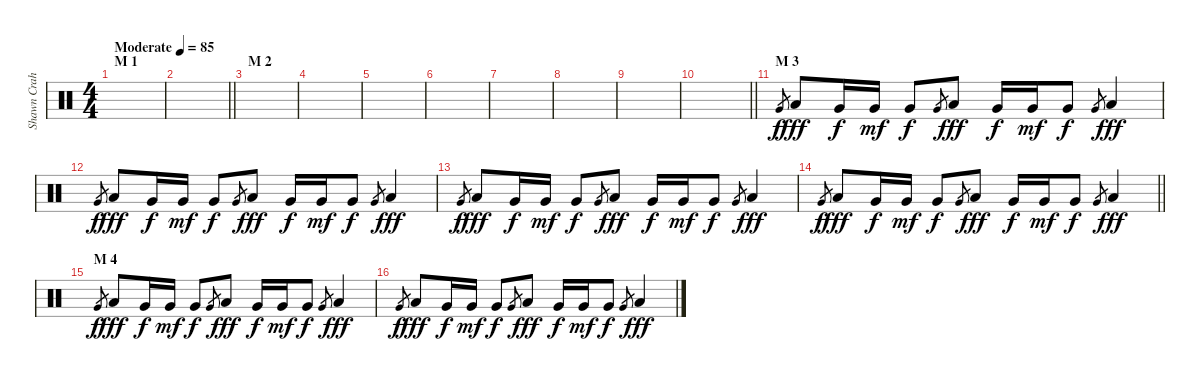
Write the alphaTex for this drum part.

\track ("Shawn Crahan" "Shawn Crah") {instrument percussion}
\staff {score}
\articulation defaults
\ts (4 4)
\section ("" "M 1")
\tempo (85 "Moderate")
\clef neutral
\ks c
|
\barLineRight lightlight
|
\section ("" "M 2")
|
|
|
|
|
|
|
\barLineRight lightlight
|
\section ("" "M 3")
"Very Low Tom (hit)".8{gr} "Low Tom (hit)".8{dy fff} "Very Low Tom (hit)".16{dy f} "Very Low Tom (hit)".16{dy mf} "Very Low Tom (hit)".8{dy f} "Very Low Tom (hit)".8{gr} "Low Tom (hit)".8{dy fff} "Very Low Tom (hit)".16{dy f} "Very Low Tom (hit)".16{dy mf} "Very Low Tom (hit)".8{dy f} "Very Low Tom (hit)".8{gr} "Low Tom (hit)".4{dy fff} |
"Very Low Tom (hit)".8{gr dy f} "Low Tom (hit)".8{dy fff} "Very Low Tom (hit)".16{dy f} "Very Low Tom (hit)".16{dy mf} "Very Low Tom (hit)".8{dy f} "Very Low Tom (hit)".8{gr} "Low Tom (hit)".8{dy fff} "Very Low Tom (hit)".16{dy f} "Very Low Tom (hit)".16{dy mf} "Very Low Tom (hit)".8{dy f} "Very Low Tom (hit)".8{gr} "Low Tom (hit)".4{dy fff} |
"Very Low Tom (hit)".8{gr dy f} "Low Tom (hit)".8{dy fff} "Very Low Tom (hit)".16{dy f} "Very Low Tom (hit)".16{dy mf} "Very Low Tom (hit)".8{dy f} "Very Low Tom (hit)".8{gr} "Low Tom (hit)".8{dy fff} "Very Low Tom (hit)".16{dy f} "Very Low Tom (hit)".16{dy mf} "Very Low Tom (hit)".8{dy f} "Very Low Tom (hit)".8{gr} "Low Tom (hit)".4{dy fff} |
\barLineRight lightlight "Very Low Tom (hit)".8{gr dy f} "Low Tom (hit)".8{dy fff} "Very Low Tom (hit)".16{dy f} "Very Low Tom (hit)".16{dy mf} "Very Low Tom (hit)".8{dy f} "Very Low Tom (hit)".8{gr} "Low Tom (hit)".8{dy fff} "Very Low Tom (hit)".16{dy f} "Very Low Tom (hit)".16{dy mf} "Very Low Tom (hit)".8{dy f} "Very Low Tom (hit)".8{gr} "Low Tom (hit)".4{dy fff}
|
\section ("" "M 4")
"Very Low Tom (hit)".8{gr dy f} "Low Tom (hit)".8{dy fff} "Very Low Tom (hit)".16{dy f} "Very Low Tom (hit)".16{dy mf} "Very Low Tom (hit)".8{dy f} "Very Low Tom (hit)".8{gr} "Low Tom (hit)".8{dy fff} "Very Low Tom (hit)".16{dy f} "Very Low Tom (hit)".16{dy mf} "Very Low Tom (hit)".8{dy f} "Very Low Tom (hit)".8{gr} "Low Tom (hit)".4{dy fff} |
"Very Low Tom (hit)".8{gr dy f} "Low Tom (hit)".8{dy fff} "Very Low Tom (hit)".16{dy f} "Very Low Tom (hit)".16{dy mf} "Very Low Tom (hit)".8{dy f} "Very Low Tom (hit)".8{gr} "Low Tom (hit)".8{dy fff} "Very Low Tom (hit)".16{dy f} "Very Low Tom (hit)".16{dy mf} "Very Low Tom (hit)".8{dy f} "Very Low Tom (hit)".8{gr} "Low Tom (hit)".4{dy fff}
